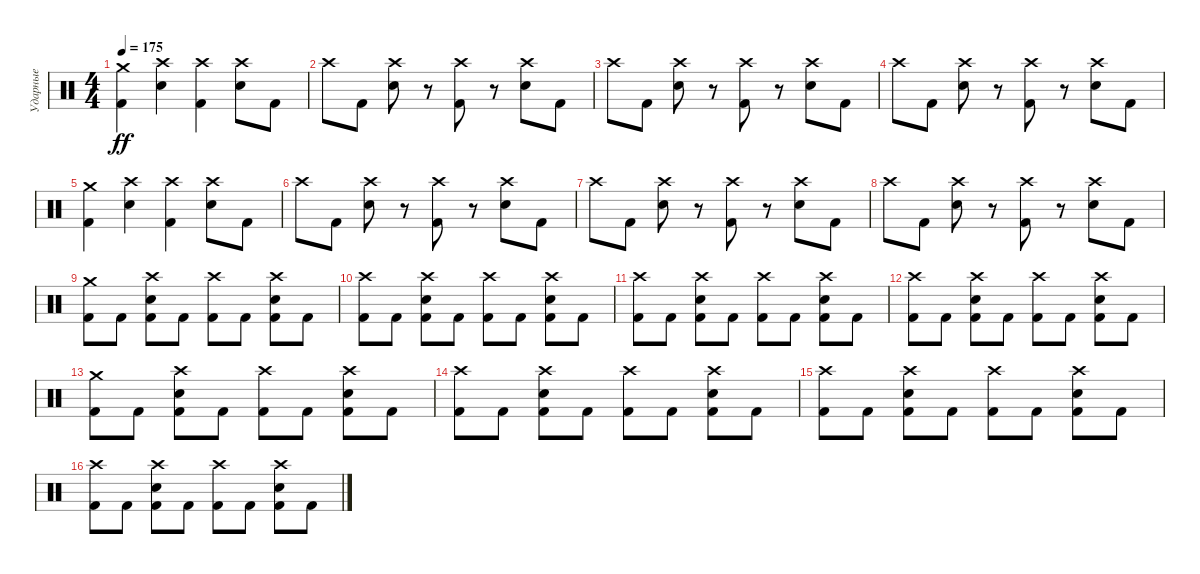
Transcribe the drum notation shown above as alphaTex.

\track ("Ударные" "Ударные") {instrument percussion}
\staff {score}
\articulation defaults
\ts (4 4)
\tempo 175
\clef neutral
\ks c
("Kick (hit) 2" "Crash medium (hit)").4{dy ff} ("Electric Snare (hit)" "Crash high (hit)").4 ("Kick (hit) 2" "Crash high (hit)").4 ("Electric Snare (hit)" "Crash high (hit)").8 "Kick (hit) 2".8 |
"Crash high (hit)".8 "Kick (hit) 2".8 ("Electric Snare (hit)" "Crash high (hit)").8 r.8 ("Kick (hit) 2" "Crash high (hit)").8 r.8 ("Electric Snare (hit)" "Crash high (hit)").8 "Kick (hit) 2".8 |
"Crash high (hit)".8 "Kick (hit) 2".8 ("Electric Snare (hit)" "Crash high (hit)").8 r.8 ("Kick (hit) 2" "Crash high (hit)").8 r.8 ("Electric Snare (hit)" "Crash high (hit)").8 "Kick (hit) 2".8 |
"Crash high (hit)".8 "Kick (hit) 2".8 ("Electric Snare (hit)" "Crash high (hit)").8 r.8 ("Kick (hit) 2" "Crash high (hit)").8 r.8 ("Electric Snare (hit)" "Crash high (hit)").8 "Kick (hit) 2".8 |
("Kick (hit) 2" "Crash medium (hit)").4 ("Electric Snare (hit)" "Crash high (hit)").4 ("Kick (hit) 2" "Crash high (hit)").4 ("Electric Snare (hit)" "Crash high (hit)").8 "Kick (hit) 2".8 |
"Crash high (hit)".8 "Kick (hit) 2".8 ("Electric Snare (hit)" "Crash high (hit)").8 r.8 ("Kick (hit) 2" "Crash high (hit)").8 r.8 ("Electric Snare (hit)" "Crash high (hit)").8 "Kick (hit) 2".8 |
"Crash high (hit)".8 "Kick (hit) 2".8 ("Electric Snare (hit)" "Crash high (hit)").8 r.8 ("Kick (hit) 2" "Crash high (hit)").8 r.8 ("Electric Snare (hit)" "Crash high (hit)").8 "Kick (hit) 2".8 |
"Crash high (hit)".8 "Kick (hit) 2".8 ("Electric Snare (hit)" "Crash high (hit)").8 r.8 ("Kick (hit) 2" "Crash high (hit)").8 r.8 ("Electric Snare (hit)" "Crash high (hit)").8 "Kick (hit) 2".8 |
("Kick (hit) 2" "Crash medium (hit)").8 "Kick (hit) 2".8 ("Kick (hit) 2" "Electric Snare (hit)" "Crash high (hit)").8 "Kick (hit) 2".8 ("Kick (hit) 2" "Crash high (hit)").8 "Kick (hit) 2".8 ("Kick (hit) 2" "Electric Snare (hit)" "Crash high (hit)").8 "Kick (hit) 2".8 |
("Kick (hit) 2" "Crash high (hit)").8 "Kick (hit) 2".8 ("Kick (hit) 2" "Electric Snare (hit)" "Crash high (hit)").8 "Kick (hit) 2".8 ("Kick (hit) 2" "Crash high (hit)").8 "Kick (hit) 2".8 ("Kick (hit) 2" "Electric Snare (hit)" "Crash high (hit)").8 "Kick (hit) 2".8 |
("Kick (hit) 2" "Crash high (hit)").8 "Kick (hit) 2".8 ("Kick (hit) 2" "Electric Snare (hit)" "Crash high (hit)").8 "Kick (hit) 2".8 ("Kick (hit) 2" "Crash high (hit)").8 "Kick (hit) 2".8 ("Kick (hit) 2" "Electric Snare (hit)" "Crash high (hit)").8 "Kick (hit) 2".8 |
("Kick (hit) 2" "Crash high (hit)").8 "Kick (hit) 2".8 ("Kick (hit) 2" "Electric Snare (hit)" "Crash high (hit)").8 "Kick (hit) 2".8 ("Kick (hit) 2" "Crash high (hit)").8 "Kick (hit) 2".8 ("Kick (hit) 2" "Electric Snare (hit)" "Crash high (hit)").8 "Kick (hit) 2".8 |
("Kick (hit) 2" "Crash medium (hit)").8 "Kick (hit) 2".8 ("Kick (hit) 2" "Electric Snare (hit)" "Crash high (hit)").8 "Kick (hit) 2".8 ("Kick (hit) 2" "Crash high (hit)").8 "Kick (hit) 2".8 ("Kick (hit) 2" "Electric Snare (hit)" "Crash high (hit)").8 "Kick (hit) 2".8 |
("Kick (hit) 2" "Crash high (hit)").8 "Kick (hit) 2".8 ("Kick (hit) 2" "Electric Snare (hit)" "Crash high (hit)").8 "Kick (hit) 2".8 ("Kick (hit) 2" "Crash high (hit)").8 "Kick (hit) 2".8 ("Kick (hit) 2" "Electric Snare (hit)" "Crash high (hit)").8 "Kick (hit) 2".8 |
("Kick (hit) 2" "Crash high (hit)").8 "Kick (hit) 2".8 ("Kick (hit) 2" "Electric Snare (hit)" "Crash high (hit)").8 "Kick (hit) 2".8 ("Kick (hit) 2" "Crash high (hit)").8 "Kick (hit) 2".8 ("Kick (hit) 2" "Electric Snare (hit)" "Crash high (hit)").8 "Kick (hit) 2".8 |
("Kick (hit) 2" "Crash high (hit)").8 "Kick (hit) 2".8 ("Kick (hit) 2" "Electric Snare (hit)" "Crash high (hit)").8 "Kick (hit) 2".8 ("Kick (hit) 2" "Crash high (hit)").8 "Kick (hit) 2".8 ("Kick (hit) 2" "Electric Snare (hit)" "Crash high (hit)").8 "Kick (hit) 2".8
